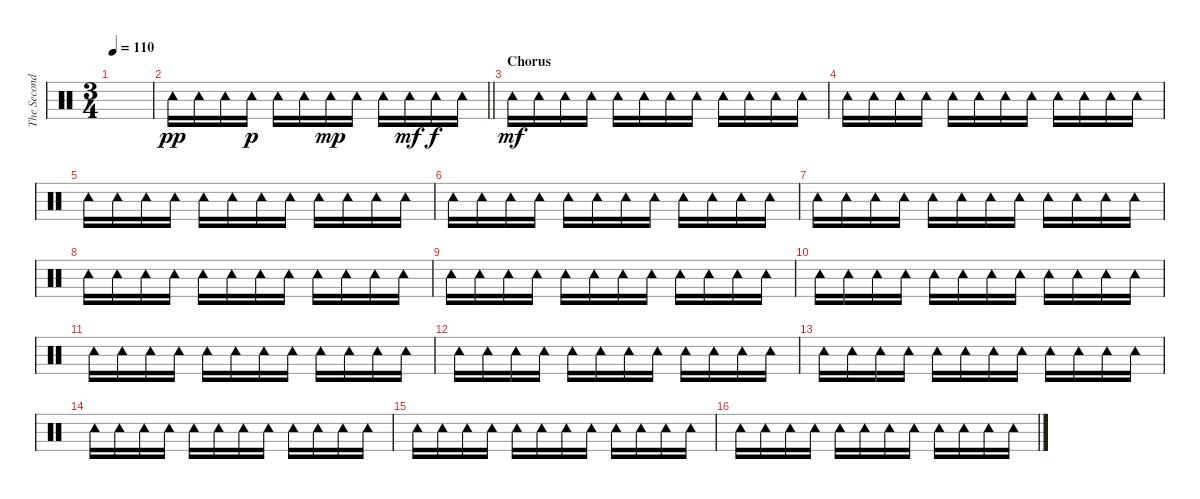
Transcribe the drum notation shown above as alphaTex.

\track ("The Second Drummer" "The Second") {instrument percussion}
\staff {score}
\articulation defaults
\ts (3 4)
\tempo 110
\clef neutral
\ks c
|
\barLineRight lightlight "Tambourine (hit)".16{dy pp} "Tambourine (hit)".16 "Tambourine (hit)".16 "Tambourine (hit)".16{dy p} "Tambourine (hit)".16 "Tambourine (hit)".16 "Tambourine (hit)".16{dy mp} "Tambourine (hit)".16 "Tambourine (hit)".16 "Tambourine (hit)".16{dy mf} "Tambourine (hit)".16{dy f} "Tambourine (hit)".16
|
\section ("" "Chorus")
"Tambourine (hit)".16{dy mf} "Tambourine (hit)".16 "Tambourine (hit)".16 "Tambourine (hit)".16 "Tambourine (hit)".16 "Tambourine (hit)".16 "Tambourine (hit)".16 "Tambourine (hit)".16 "Tambourine (hit)".16 "Tambourine (hit)".16 "Tambourine (hit)".16 "Tambourine (hit)".16 |
"Tambourine (hit)".16 "Tambourine (hit)".16 "Tambourine (hit)".16 "Tambourine (hit)".16 "Tambourine (hit)".16 "Tambourine (hit)".16 "Tambourine (hit)".16 "Tambourine (hit)".16 "Tambourine (hit)".16 "Tambourine (hit)".16 "Tambourine (hit)".16 "Tambourine (hit)".16 |
"Tambourine (hit)".16 "Tambourine (hit)".16 "Tambourine (hit)".16 "Tambourine (hit)".16 "Tambourine (hit)".16 "Tambourine (hit)".16 "Tambourine (hit)".16 "Tambourine (hit)".16 "Tambourine (hit)".16 "Tambourine (hit)".16 "Tambourine (hit)".16 "Tambourine (hit)".16 |
"Tambourine (hit)".16 "Tambourine (hit)".16 "Tambourine (hit)".16 "Tambourine (hit)".16 "Tambourine (hit)".16 "Tambourine (hit)".16 "Tambourine (hit)".16 "Tambourine (hit)".16 "Tambourine (hit)".16 "Tambourine (hit)".16 "Tambourine (hit)".16 "Tambourine (hit)".16 |
"Tambourine (hit)".16 "Tambourine (hit)".16 "Tambourine (hit)".16 "Tambourine (hit)".16 "Tambourine (hit)".16 "Tambourine (hit)".16 "Tambourine (hit)".16 "Tambourine (hit)".16 "Tambourine (hit)".16 "Tambourine (hit)".16 "Tambourine (hit)".16 "Tambourine (hit)".16 |
"Tambourine (hit)".16 "Tambourine (hit)".16 "Tambourine (hit)".16 "Tambourine (hit)".16 "Tambourine (hit)".16 "Tambourine (hit)".16 "Tambourine (hit)".16 "Tambourine (hit)".16 "Tambourine (hit)".16 "Tambourine (hit)".16 "Tambourine (hit)".16 "Tambourine (hit)".16 |
"Tambourine (hit)".16 "Tambourine (hit)".16 "Tambourine (hit)".16 "Tambourine (hit)".16 "Tambourine (hit)".16 "Tambourine (hit)".16 "Tambourine (hit)".16 "Tambourine (hit)".16 "Tambourine (hit)".16 "Tambourine (hit)".16 "Tambourine (hit)".16 "Tambourine (hit)".16 |
"Tambourine (hit)".16 "Tambourine (hit)".16 "Tambourine (hit)".16 "Tambourine (hit)".16 "Tambourine (hit)".16 "Tambourine (hit)".16 "Tambourine (hit)".16 "Tambourine (hit)".16 "Tambourine (hit)".16 "Tambourine (hit)".16 "Tambourine (hit)".16 "Tambourine (hit)".16 |
"Tambourine (hit)".16 "Tambourine (hit)".16 "Tambourine (hit)".16 "Tambourine (hit)".16 "Tambourine (hit)".16 "Tambourine (hit)".16 "Tambourine (hit)".16 "Tambourine (hit)".16 "Tambourine (hit)".16 "Tambourine (hit)".16 "Tambourine (hit)".16 "Tambourine (hit)".16 |
"Tambourine (hit)".16 "Tambourine (hit)".16 "Tambourine (hit)".16 "Tambourine (hit)".16 "Tambourine (hit)".16 "Tambourine (hit)".16 "Tambourine (hit)".16 "Tambourine (hit)".16 "Tambourine (hit)".16 "Tambourine (hit)".16 "Tambourine (hit)".16 "Tambourine (hit)".16 |
"Tambourine (hit)".16 "Tambourine (hit)".16 "Tambourine (hit)".16 "Tambourine (hit)".16 "Tambourine (hit)".16 "Tambourine (hit)".16 "Tambourine (hit)".16 "Tambourine (hit)".16 "Tambourine (hit)".16 "Tambourine (hit)".16 "Tambourine (hit)".16 "Tambourine (hit)".16 |
"Tambourine (hit)".16 "Tambourine (hit)".16 "Tambourine (hit)".16 "Tambourine (hit)".16 "Tambourine (hit)".16 "Tambourine (hit)".16 "Tambourine (hit)".16 "Tambourine (hit)".16 "Tambourine (hit)".16 "Tambourine (hit)".16 "Tambourine (hit)".16 "Tambourine (hit)".16 |
"Tambourine (hit)".16 "Tambourine (hit)".16 "Tambourine (hit)".16 "Tambourine (hit)".16 "Tambourine (hit)".16 "Tambourine (hit)".16 "Tambourine (hit)".16 "Tambourine (hit)".16 "Tambourine (hit)".16 "Tambourine (hit)".16 "Tambourine (hit)".16 "Tambourine (hit)".16 |
"Tambourine (hit)".16 "Tambourine (hit)".16 "Tambourine (hit)".16 "Tambourine (hit)".16 "Tambourine (hit)".16 "Tambourine (hit)".16 "Tambourine (hit)".16 "Tambourine (hit)".16 "Tambourine (hit)".16 "Tambourine (hit)".16 "Tambourine (hit)".16 "Tambourine (hit)".16
